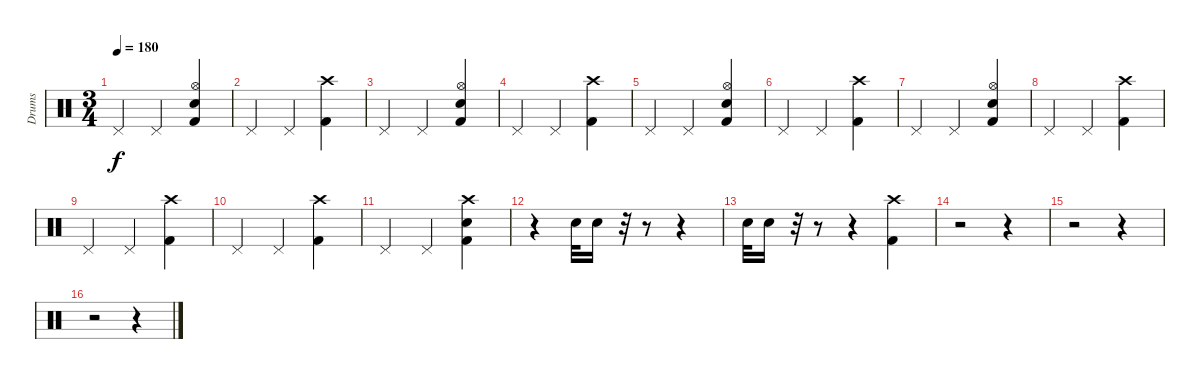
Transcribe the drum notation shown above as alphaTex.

\track ("Drums" "Drums") {instrument percussion}
\staff {score}
\articulation defaults
\ts (3 4)
\tempo 180
\clef neutral
\ks c "Pedal Hi-Hat (hit)".4{dy f} "Pedal Hi-Hat (hit)".4
("Snare (hit) 2" "Hi-Hat (open)" "Kick (hit) 2").4 |
"Pedal Hi-Hat (hit)".4 "Pedal Hi-Hat (hit)".4 ("Crash high (hit)" "Kick (hit) 2").4 |
"Pedal Hi-Hat (hit)".4 "Pedal Hi-Hat (hit)".4 ("Snare (hit) 2" "Hi-Hat (open)" "Kick (hit) 2").4 |
"Pedal Hi-Hat (hit)".4 "Pedal Hi-Hat (hit)".4 ("Crash high (hit)" "Kick (hit) 2").4 |
"Pedal Hi-Hat (hit)".4 "Pedal Hi-Hat (hit)".4 ("Snare (hit) 2" "Hi-Hat (open)" "Kick (hit) 2").4 |
"Pedal Hi-Hat (hit)".4 "Pedal Hi-Hat (hit)".4 ("Crash high (hit)" "Kick (hit) 2").4 |
"Pedal Hi-Hat (hit)".4 "Pedal Hi-Hat (hit)".4 ("Snare (hit) 2" "Hi-Hat (open)" "Kick (hit) 2").4 |
"Pedal Hi-Hat (hit)".4 "Pedal Hi-Hat (hit)".4 ("Crash high (hit)" "Kick (hit) 2").4 |
"Pedal Hi-Hat (hit)".4 "Pedal Hi-Hat (hit)".4 ("Crash high (hit)" "Kick (hit) 2").4 |
"Pedal Hi-Hat (hit)".4 "Pedal Hi-Hat (hit)".4 ("Crash high (hit)" "Kick (hit) 2").4 |
"Pedal Hi-Hat (hit)".4 "Pedal Hi-Hat (hit)".4 ("Snare (hit) 2" "Crash high (hit)" "Kick (hit) 2").4 |
r.4 "Electric Snare (hit)".32 "Snare (hit) 2".16 r.32 r.8 r.4 |
"Electric Snare (hit)".32 "Snare (hit) 2".16 r.32 r.8 r.4 ("Crash high (hit)" "Kick (hit) 2").4 |
r.2 r.4 |
r.2 r.4 |
r.2 r.4
